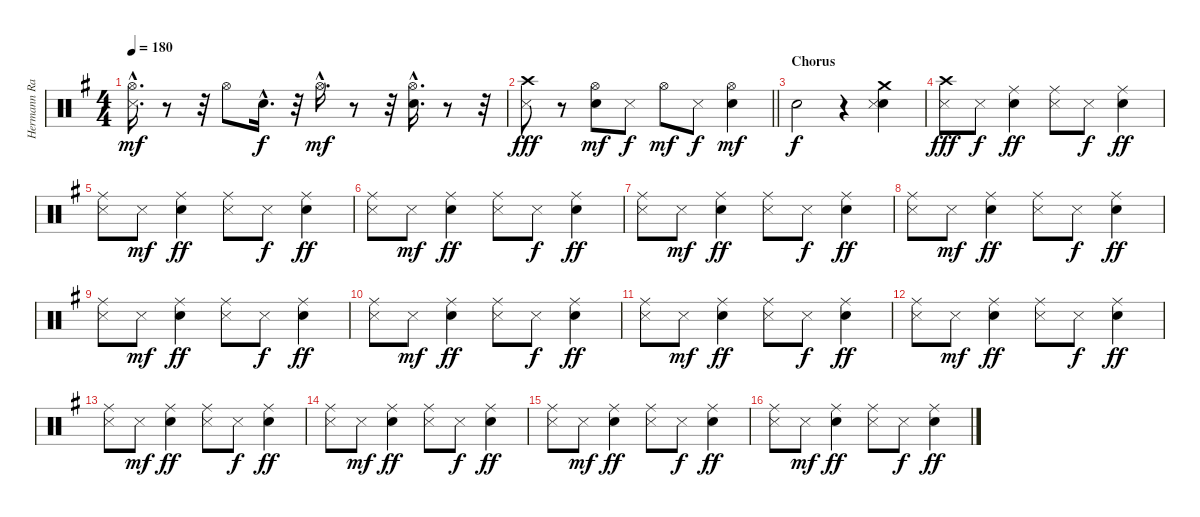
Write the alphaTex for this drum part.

\track ("Hermann Rarebel" "Hermann Ra") {instrument percussion}
\staff {score}
\articulation defaults
\ts (4 4)
\tempo 180
\clef neutral
\ks eminor
("Hi-Hat (open)"{hac} "Metronome (hit)"{hac}).16{d dy mf} r.8 r.32 "Hi-Hat (open)".8 "Snare (hit) 2"{hac}.16{d dy f} r.32 "Hi-Hat (open)"{hac}.16{d dy mf} r.8 r.32 ("Snare (hit) 2"{hac} "Hi-Hat (open)"{hac}).16{d} r.8 r.32 |
\barLineRight lightlight
("Crash high (hit)" "Metronome (hit)").8{dy fff} r.8 ("Hi-Hat (open)" "Snare (hit) 2").8{dy mf} "Metronome (hit)".8{dy f} "Hi-Hat (open)".8{dy mf} "Metronome (hit)".8{dy f} ("Hi-Hat (open)" "Snare (hit) 2").4{dy mf} |
\section ("" "Chorus")
"Electric Snare (hit)".2{dy f} r.4 ("Snare (hit) 2" "Metronome (hit)" "Crash medium (hit)").4 |
("Metronome (hit)" "Crash high (hit)").8{dy fff} "Metronome (hit)".8{dy f} ("Snare (hit) 2" "Ride (middle)").4{dy ff} ("Metronome (hit)" "Ride (middle)").8 "Metronome (hit)".8{dy f} ("Snare (hit) 2" "Ride (middle)").4{dy ff} |
("Metronome (hit)" "Ride (middle)").8 "Metronome (hit)".8{dy mf} ("Snare (hit) 2" "Ride (middle)").4{dy ff} ("Metronome (hit)" "Ride (middle)").8 "Metronome (hit)".8{dy f} ("Snare (hit) 2" "Ride (middle)").4{dy ff} |
("Metronome (hit)" "Ride (middle)").8 "Metronome (hit)".8{dy mf} ("Snare (hit) 2" "Ride (middle)").4{dy ff} ("Metronome (hit)" "Ride (middle)").8 "Metronome (hit)".8{dy f} ("Snare (hit) 2" "Ride (middle)").4{dy ff} |
("Metronome (hit)" "Ride (middle)").8 "Metronome (hit)".8{dy mf} ("Snare (hit) 2" "Ride (middle)").4{dy ff} ("Metronome (hit)" "Ride (middle)").8 "Metronome (hit)".8{dy f} ("Snare (hit) 2" "Ride (middle)").4{dy ff} |
("Metronome (hit)" "Ride (middle)").8 "Metronome (hit)".8{dy mf} ("Snare (hit) 2" "Ride (middle)").4{dy ff} ("Metronome (hit)" "Ride (middle)").8 "Metronome (hit)".8{dy f} ("Snare (hit) 2" "Ride (middle)").4{dy ff} |
("Metronome (hit)" "Ride (middle)").8 "Metronome (hit)".8{dy mf} ("Snare (hit) 2" "Ride (middle)").4{dy ff} ("Metronome (hit)" "Ride (middle)").8 "Metronome (hit)".8{dy f} ("Snare (hit) 2" "Ride (middle)").4{dy ff} |
("Metronome (hit)" "Ride (middle)").8 "Metronome (hit)".8{dy mf} ("Snare (hit) 2" "Ride (middle)").4{dy ff} ("Metronome (hit)" "Ride (middle)").8 "Metronome (hit)".8{dy f} ("Snare (hit) 2" "Ride (middle)").4{dy ff} |
("Metronome (hit)" "Ride (middle)").8 "Metronome (hit)".8{dy mf} ("Snare (hit) 2" "Ride (middle)").4{dy ff} ("Metronome (hit)" "Ride (middle)").8 "Metronome (hit)".8{dy f} ("Snare (hit) 2" "Ride (middle)").4{dy ff} |
("Metronome (hit)" "Ride (middle)").8 "Metronome (hit)".8{dy mf} ("Snare (hit) 2" "Ride (middle)").4{dy ff} ("Metronome (hit)" "Ride (middle)").8 "Metronome (hit)".8{dy f} ("Snare (hit) 2" "Ride (middle)").4{dy ff} |
("Metronome (hit)" "Ride (middle)").8 "Metronome (hit)".8{dy mf} ("Snare (hit) 2" "Ride (middle)").4{dy ff} ("Metronome (hit)" "Ride (middle)").8 "Metronome (hit)".8{dy f} ("Snare (hit) 2" "Ride (middle)").4{dy ff} |
("Metronome (hit)" "Ride (middle)").8 "Metronome (hit)".8{dy mf} ("Snare (hit) 2" "Ride (middle)").4{dy ff} ("Metronome (hit)" "Ride (middle)").8 "Metronome (hit)".8{dy f} ("Snare (hit) 2" "Ride (middle)").4{dy ff} |
("Metronome (hit)" "Ride (middle)").8 "Metronome (hit)".8{dy mf} ("Snare (hit) 2" "Ride (middle)").4{dy ff} ("Metronome (hit)" "Ride (middle)").8 "Metronome (hit)".8{dy f} ("Snare (hit) 2" "Ride (middle)").4{dy ff} |
("Metronome (hit)" "Ride (middle)").8 "Metronome (hit)".8{dy mf} ("Snare (hit) 2" "Ride (middle)").4{dy ff} ("Metronome (hit)" "Ride (middle)").8 "Metronome (hit)".8{dy f} ("Snare (hit) 2" "Ride (middle)").4{dy ff}
